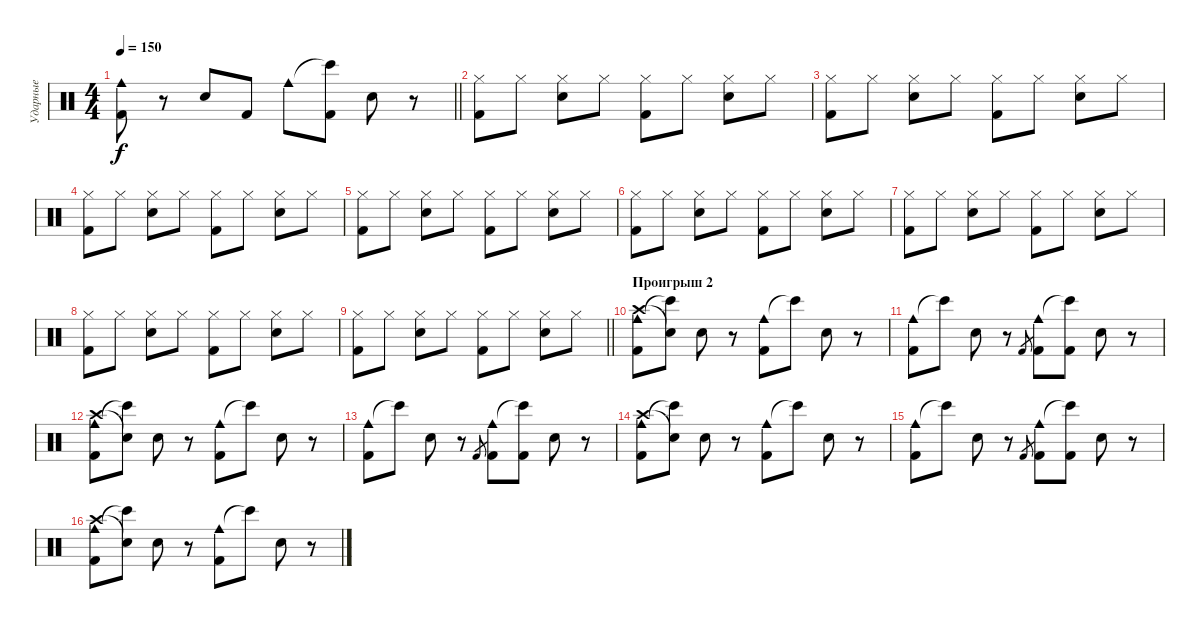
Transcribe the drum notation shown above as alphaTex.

\track ("Ударные" "Ударные") {instrument percussion}
\staff {score}
\articulation defaults
\ts (4 4)
\tempo 150
\clef neutral
\barLineRight lightlight
\ks c
("Cowbell medium (hit)" "Kick (hit) 2").8{dy f} r.8 "Snare (hit) 2".8 "Kick (hit) 2".8 "Cowbell medium (hit)".8 ("Bongo High (hit)"{t} "Kick (hit) 2").8 "Snare (hit) 2".8 r.8 |
("Hi-Hat (closed)" "Kick (hit) 2").8 "Hi-Hat (closed)".8 ("Hi-Hat (closed)" "Snare (hit) 2").8 "Hi-Hat (closed)".8 ("Hi-Hat (closed)" "Kick (hit) 2").8 "Hi-Hat (closed)".8 ("Hi-Hat (closed)" "Snare (hit) 2").8 "Hi-Hat (closed)".8 |
("Hi-Hat (closed)" "Kick (hit) 2").8 "Hi-Hat (closed)".8 ("Hi-Hat (closed)" "Snare (hit) 2").8 "Hi-Hat (closed)".8 ("Hi-Hat (closed)" "Kick (hit) 2").8 "Hi-Hat (closed)".8 ("Hi-Hat (closed)" "Snare (hit) 2").8 "Hi-Hat (closed)".8 |
("Hi-Hat (closed)" "Kick (hit) 2").8 "Hi-Hat (closed)".8 ("Hi-Hat (closed)" "Snare (hit) 2").8 "Hi-Hat (closed)".8 ("Hi-Hat (closed)" "Kick (hit) 2").8 "Hi-Hat (closed)".8 ("Hi-Hat (closed)" "Snare (hit) 2").8 "Hi-Hat (closed)".8 |
("Hi-Hat (closed)" "Kick (hit) 2").8 "Hi-Hat (closed)".8 ("Hi-Hat (closed)" "Snare (hit) 2").8 "Hi-Hat (closed)".8 ("Hi-Hat (closed)" "Kick (hit) 2").8 "Hi-Hat (closed)".8 ("Hi-Hat (closed)" "Snare (hit) 2").8 "Hi-Hat (closed)".8 |
("Hi-Hat (closed)" "Kick (hit) 2").8 "Hi-Hat (closed)".8 ("Hi-Hat (closed)" "Snare (hit) 2").8 "Hi-Hat (closed)".8 ("Hi-Hat (closed)" "Kick (hit) 2").8 "Hi-Hat (closed)".8 ("Hi-Hat (closed)" "Snare (hit) 2").8 "Hi-Hat (closed)".8 |
("Hi-Hat (closed)" "Kick (hit) 2").8 "Hi-Hat (closed)".8 ("Hi-Hat (closed)" "Snare (hit) 2").8 "Hi-Hat (closed)".8 ("Hi-Hat (closed)" "Kick (hit) 2").8 "Hi-Hat (closed)".8 ("Hi-Hat (closed)" "Snare (hit) 2").8 "Hi-Hat (closed)".8 |
("Hi-Hat (closed)" "Kick (hit) 2").8 "Hi-Hat (closed)".8 ("Hi-Hat (closed)" "Snare (hit) 2").8 "Hi-Hat (closed)".8 ("Hi-Hat (closed)" "Kick (hit) 2").8 "Hi-Hat (closed)".8 ("Hi-Hat (closed)" "Snare (hit) 2").8 "Hi-Hat (closed)".8 |
\barLineRight lightlight
("Hi-Hat (closed)" "Kick (hit) 2").8 "Hi-Hat (closed)".8 ("Hi-Hat (closed)" "Snare (hit) 2").8 "Hi-Hat (closed)".8 ("Hi-Hat (closed)" "Kick (hit) 2").8 "Hi-Hat (closed)".8 ("Hi-Hat (closed)" "Snare (hit) 2").8 "Hi-Hat (closed)".8 |
\section ("" "Проигрыш 2")
("Cowbell medium (hit)" "Crash high (hit)" "Kick (hit) 2").8 ("Bongo High (hit)"{t} "Snare (hit)"{t}).8 "Snare (hit) 2".8 r.8 ("Cowbell medium (hit)" "Kick (hit) 2").8 "Bongo High (hit)"{t}.8 "Snare (hit) 2".8 r.8 |
("Cowbell medium (hit)" "Kick (hit) 2").8 "Bongo High (hit)"{t}.8 "Snare (hit) 2".8 r.8 "Kick (hit) 2".8{gr} ("Cowbell medium (hit)" "Kick (hit) 2").8 ("Bongo High (hit)"{t} "Kick (hit) 2").8 "Snare (hit) 2".8 r.8 |
("Cowbell medium (hit)" "Crash high (hit)" "Kick (hit) 2").8 ("Bongo High (hit)"{t} "Snare (hit)"{t}).8 "Snare (hit) 2".8 r.8 ("Cowbell medium (hit)" "Kick (hit) 2").8 "Bongo High (hit)"{t}.8 "Snare (hit) 2".8 r.8 |
("Cowbell medium (hit)" "Kick (hit) 2").8 "Bongo High (hit)"{t}.8 "Snare (hit) 2".8 r.8 "Kick (hit) 2".8{gr} ("Cowbell medium (hit)" "Kick (hit) 2").8 ("Bongo High (hit)"{t} "Kick (hit) 2").8 "Snare (hit) 2".8 r.8 |
("Cowbell medium (hit)" "Crash high (hit)" "Kick (hit) 2").8 ("Bongo High (hit)"{t} "Snare (hit)"{t}).8 "Snare (hit) 2".8 r.8 ("Cowbell medium (hit)" "Kick (hit) 2").8 "Bongo High (hit)"{t}.8 "Snare (hit) 2".8 r.8 |
("Cowbell medium (hit)" "Kick (hit) 2").8 "Bongo High (hit)"{t}.8 "Snare (hit) 2".8 r.8 "Kick (hit) 2".8{gr} ("Cowbell medium (hit)" "Kick (hit) 2").8 ("Bongo High (hit)"{t} "Kick (hit) 2").8 "Snare (hit) 2".8 r.8 |
("Cowbell medium (hit)" "Crash high (hit)" "Kick (hit) 2").8 ("Bongo High (hit)"{t} "Snare (hit)"{t}).8 "Snare (hit) 2".8 r.8 ("Cowbell medium (hit)" "Kick (hit) 2").8 "Bongo High (hit)"{t}.8 "Snare (hit) 2".8 r.8
